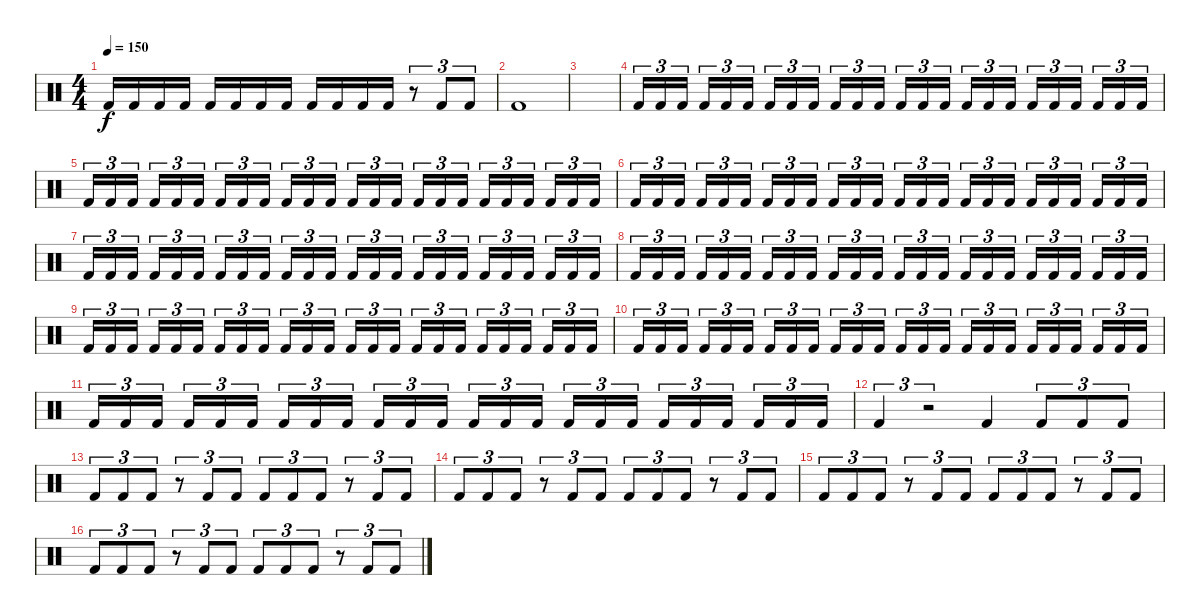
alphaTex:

\track "" {instrument percussion}
\staff {score}
\articulation defaults
\ts (4 4)
\tempo 150
\clef neutral
\ks c "Kick (hit) 2".16{dy f} "Kick (hit) 2".16 "Kick (hit) 2".16 "Kick (hit) 2".16 "Kick (hit) 2".16 "Kick (hit) 2".16 "Kick (hit) 2".16 "Kick (hit) 2".16 "Kick (hit) 2".16 "Kick (hit) 2".16 "Kick (hit) 2".16 "Kick (hit) 2".16
r.8{tu (3 2)} "Kick (hit) 2".8{tu (3 2)} "Kick (hit) 2".8{tu (3 2)} |
"Kick (hit) 2".1 |
|
"Kick (hit) 2".16{tu (3 2)} "Kick (hit) 2".16{tu (3 2)} "Kick (hit) 2".16{tu (3 2)} "Kick (hit) 2".16{tu (3 2)} "Kick (hit) 2".16{tu (3 2)} "Kick (hit) 2".16{tu (3 2)} "Kick (hit) 2".16{tu (3 2)} "Kick (hit) 2".16{tu (3 2)} "Kick (hit) 2".16{tu (3 2)} "Kick (hit) 2".16{tu (3 2)} "Kick (hit) 2".16{tu (3 2)} "Kick (hit) 2".16{tu (3 2)} "Kick (hit) 2".16{tu (3 2)} "Kick (hit) 2".16{tu (3 2)} "Kick (hit) 2".16{tu (3 2)} "Kick (hit) 2".16{tu (3 2)} "Kick (hit) 2".16{tu (3 2)} "Kick (hit) 2".16{tu (3 2)} "Kick (hit) 2".16{tu (3 2)} "Kick (hit) 2".16{tu (3 2)} "Kick (hit) 2".16{tu (3 2)} "Kick (hit) 2".16{tu (3 2)} "Kick (hit) 2".16{tu (3 2)} "Kick (hit) 2".16{tu (3 2)} |
"Kick (hit) 2".16{tu (3 2)} "Kick (hit) 2".16{tu (3 2)} "Kick (hit) 2".16{tu (3 2)} "Kick (hit) 2".16{tu (3 2)} "Kick (hit) 2".16{tu (3 2)} "Kick (hit) 2".16{tu (3 2)} "Kick (hit) 2".16{tu (3 2)} "Kick (hit) 2".16{tu (3 2)} "Kick (hit) 2".16{tu (3 2)} "Kick (hit) 2".16{tu (3 2)} "Kick (hit) 2".16{tu (3 2)} "Kick (hit) 2".16{tu (3 2)} "Kick (hit) 2".16{tu (3 2)} "Kick (hit) 2".16{tu (3 2)} "Kick (hit) 2".16{tu (3 2)} "Kick (hit) 2".16{tu (3 2)} "Kick (hit) 2".16{tu (3 2)} "Kick (hit) 2".16{tu (3 2)} "Kick (hit) 2".16{tu (3 2)} "Kick (hit) 2".16{tu (3 2)} "Kick (hit) 2".16{tu (3 2)} "Kick (hit) 2".16{tu (3 2)} "Kick (hit) 2".16{tu (3 2)} "Kick (hit) 2".16{tu (3 2)} |
"Kick (hit) 2".16{tu (3 2)} "Kick (hit) 2".16{tu (3 2)} "Kick (hit) 2".16{tu (3 2)} "Kick (hit) 2".16{tu (3 2)} "Kick (hit) 2".16{tu (3 2)} "Kick (hit) 2".16{tu (3 2)} "Kick (hit) 2".16{tu (3 2)} "Kick (hit) 2".16{tu (3 2)} "Kick (hit) 2".16{tu (3 2)} "Kick (hit) 2".16{tu (3 2)} "Kick (hit) 2".16{tu (3 2)} "Kick (hit) 2".16{tu (3 2)} "Kick (hit) 2".16{tu (3 2)} "Kick (hit) 2".16{tu (3 2)} "Kick (hit) 2".16{tu (3 2)} "Kick (hit) 2".16{tu (3 2)} "Kick (hit) 2".16{tu (3 2)} "Kick (hit) 2".16{tu (3 2)} "Kick (hit) 2".16{tu (3 2)} "Kick (hit) 2".16{tu (3 2)} "Kick (hit) 2".16{tu (3 2)} "Kick (hit) 2".16{tu (3 2)} "Kick (hit) 2".16{tu (3 2)} "Kick (hit) 2".16{tu (3 2)} |
"Kick (hit) 2".16{tu (3 2)} "Kick (hit) 2".16{tu (3 2)} "Kick (hit) 2".16{tu (3 2)} "Kick (hit) 2".16{tu (3 2)} "Kick (hit) 2".16{tu (3 2)} "Kick (hit) 2".16{tu (3 2)} "Kick (hit) 2".16{tu (3 2)} "Kick (hit) 2".16{tu (3 2)} "Kick (hit) 2".16{tu (3 2)} "Kick (hit) 2".16{tu (3 2)} "Kick (hit) 2".16{tu (3 2)} "Kick (hit) 2".16{tu (3 2)} "Kick (hit) 2".16{tu (3 2)} "Kick (hit) 2".16{tu (3 2)} "Kick (hit) 2".16{tu (3 2)} "Kick (hit) 2".16{tu (3 2)} "Kick (hit) 2".16{tu (3 2)} "Kick (hit) 2".16{tu (3 2)} "Kick (hit) 2".16{tu (3 2)} "Kick (hit) 2".16{tu (3 2)} "Kick (hit) 2".16{tu (3 2)} "Kick (hit) 2".16{tu (3 2)} "Kick (hit) 2".16{tu (3 2)} "Kick (hit) 2".16{tu (3 2)} |
"Kick (hit) 2".16{tu (3 2)} "Kick (hit) 2".16{tu (3 2)} "Kick (hit) 2".16{tu (3 2)} "Kick (hit) 2".16{tu (3 2)} "Kick (hit) 2".16{tu (3 2)} "Kick (hit) 2".16{tu (3 2)} "Kick (hit) 2".16{tu (3 2)} "Kick (hit) 2".16{tu (3 2)} "Kick (hit) 2".16{tu (3 2)} "Kick (hit) 2".16{tu (3 2)} "Kick (hit) 2".16{tu (3 2)} "Kick (hit) 2".16{tu (3 2)} "Kick (hit) 2".16{tu (3 2)} "Kick (hit) 2".16{tu (3 2)} "Kick (hit) 2".16{tu (3 2)} "Kick (hit) 2".16{tu (3 2)} "Kick (hit) 2".16{tu (3 2)} "Kick (hit) 2".16{tu (3 2)} "Kick (hit) 2".16{tu (3 2)} "Kick (hit) 2".16{tu (3 2)} "Kick (hit) 2".16{tu (3 2)} "Kick (hit) 2".16{tu (3 2)} "Kick (hit) 2".16{tu (3 2)} "Kick (hit) 2".16{tu (3 2)} |
"Kick (hit) 2".16{tu (3 2)} "Kick (hit) 2".16{tu (3 2)} "Kick (hit) 2".16{tu (3 2)} "Kick (hit) 2".16{tu (3 2)} "Kick (hit) 2".16{tu (3 2)} "Kick (hit) 2".16{tu (3 2)} "Kick (hit) 2".16{tu (3 2)} "Kick (hit) 2".16{tu (3 2)} "Kick (hit) 2".16{tu (3 2)} "Kick (hit) 2".16{tu (3 2)} "Kick (hit) 2".16{tu (3 2)} "Kick (hit) 2".16{tu (3 2)} "Kick (hit) 2".16{tu (3 2)} "Kick (hit) 2".16{tu (3 2)} "Kick (hit) 2".16{tu (3 2)} "Kick (hit) 2".16{tu (3 2)} "Kick (hit) 2".16{tu (3 2)} "Kick (hit) 2".16{tu (3 2)} "Kick (hit) 2".16{tu (3 2)} "Kick (hit) 2".16{tu (3 2)} "Kick (hit) 2".16{tu (3 2)} "Kick (hit) 2".16{tu (3 2)} "Kick (hit) 2".16{tu (3 2)} "Kick (hit) 2".16{tu (3 2)} |
"Kick (hit) 2".16{tu (3 2)} "Kick (hit) 2".16{tu (3 2)} "Kick (hit) 2".16{tu (3 2)} "Kick (hit) 2".16{tu (3 2)} "Kick (hit) 2".16{tu (3 2)} "Kick (hit) 2".16{tu (3 2)} "Kick (hit) 2".16{tu (3 2)} "Kick (hit) 2".16{tu (3 2)} "Kick (hit) 2".16{tu (3 2)} "Kick (hit) 2".16{tu (3 2)} "Kick (hit) 2".16{tu (3 2)} "Kick (hit) 2".16{tu (3 2)} "Kick (hit) 2".16{tu (3 2)} "Kick (hit) 2".16{tu (3 2)} "Kick (hit) 2".16{tu (3 2)} "Kick (hit) 2".16{tu (3 2)} "Kick (hit) 2".16{tu (3 2)} "Kick (hit) 2".16{tu (3 2)} "Kick (hit) 2".16{tu (3 2)} "Kick (hit) 2".16{tu (3 2)} "Kick (hit) 2".16{tu (3 2)} "Kick (hit) 2".16{tu (3 2)} "Kick (hit) 2".16{tu (3 2)} "Kick (hit) 2".16{tu (3 2)} |
"Kick (hit) 2".16{tu (3 2)} "Kick (hit) 2".16{tu (3 2)} "Kick (hit) 2".16{tu (3 2)} "Kick (hit) 2".16{tu (3 2)} "Kick (hit) 2".16{tu (3 2)} "Kick (hit) 2".16{tu (3 2)} "Kick (hit) 2".16{tu (3 2)} "Kick (hit) 2".16{tu (3 2)} "Kick (hit) 2".16{tu (3 2)} "Kick (hit) 2".16{tu (3 2)} "Kick (hit) 2".16{tu (3 2)} "Kick (hit) 2".16{tu (3 2)} "Kick (hit) 2".16{tu (3 2)} "Kick (hit) 2".16{tu (3 2)} "Kick (hit) 2".16{tu (3 2)} "Kick (hit) 2".16{tu (3 2)} "Kick (hit) 2".16{tu (3 2)} "Kick (hit) 2".16{tu (3 2)} "Kick (hit) 2".16{tu (3 2)} "Kick (hit) 2".16{tu (3 2)} "Kick (hit) 2".16{tu (3 2)} "Kick (hit) 2".16{tu (3 2)} "Kick (hit) 2".16{tu (3 2)} "Kick (hit) 2".16{tu (3 2)} |
"Kick (hit) 2".4{tu (3 2)} r.2{tu (3 2)} "Kick (hit) 2".4 "Kick (hit) 2".8{tu (3 2)} "Kick (hit) 2".8{tu (3 2)} "Kick (hit) 2".8{tu (3 2)} |
"Kick (hit) 2".8{tu (3 2)} "Kick (hit) 2".8{tu (3 2)} "Kick (hit) 2".8{tu (3 2)} r.8{tu (3 2)} "Kick (hit) 2".8{tu (3 2)} "Kick (hit) 2".8{tu (3 2)} "Kick (hit) 2".8{tu (3 2)} "Kick (hit) 2".8{tu (3 2)} "Kick (hit) 2".8{tu (3 2)} r.8{tu (3 2)} "Kick (hit) 2".8{tu (3 2)} "Kick (hit) 2".8{tu (3 2)} |
"Kick (hit) 2".8{tu (3 2)} "Kick (hit) 2".8{tu (3 2)} "Kick (hit) 2".8{tu (3 2)} r.8{tu (3 2)} "Kick (hit) 2".8{tu (3 2)} "Kick (hit) 2".8{tu (3 2)} "Kick (hit) 2".8{tu (3 2)} "Kick (hit) 2".8{tu (3 2)} "Kick (hit) 2".8{tu (3 2)} r.8{tu (3 2)} "Kick (hit) 2".8{tu (3 2)} "Kick (hit) 2".8{tu (3 2)} |
"Kick (hit) 2".8{tu (3 2)} "Kick (hit) 2".8{tu (3 2)} "Kick (hit) 2".8{tu (3 2)} r.8{tu (3 2)} "Kick (hit) 2".8{tu (3 2)} "Kick (hit) 2".8{tu (3 2)} "Kick (hit) 2".8{tu (3 2)} "Kick (hit) 2".8{tu (3 2)} "Kick (hit) 2".8{tu (3 2)} r.8{tu (3 2)} "Kick (hit) 2".8{tu (3 2)} "Kick (hit) 2".8{tu (3 2)} |
"Kick (hit) 2".8{tu (3 2)} "Kick (hit) 2".8{tu (3 2)} "Kick (hit) 2".8{tu (3 2)} r.8{tu (3 2)} "Kick (hit) 2".8{tu (3 2)} "Kick (hit) 2".8{tu (3 2)} "Kick (hit) 2".8{tu (3 2)} "Kick (hit) 2".8{tu (3 2)} "Kick (hit) 2".8{tu (3 2)} r.8{tu (3 2)} "Kick (hit) 2".8{tu (3 2)} "Kick (hit) 2".8{tu (3 2)}
